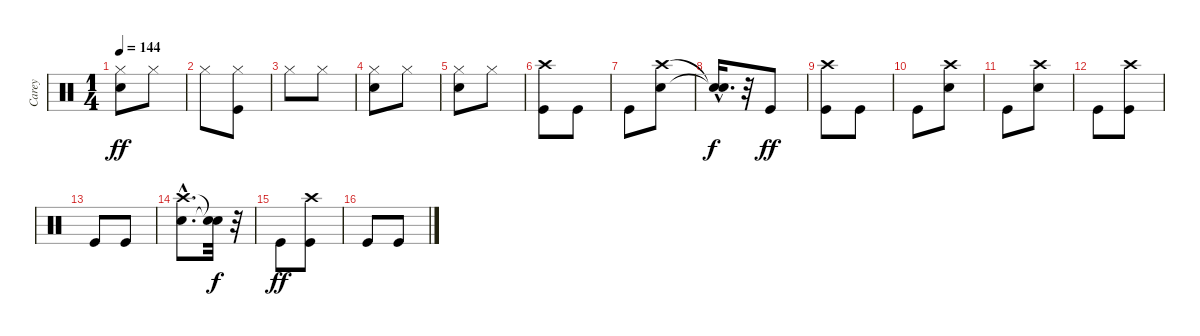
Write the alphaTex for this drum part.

\track ("Carey" "Carey") {instrument percussion}
\staff {score}
\articulation defaults
\ts (1 4)
\tempo 144
\clef neutral
\ks c
("Snare (hit) 2" "Hi-Hat (closed)").8{dy ff} "Hi-Hat (closed)".8 |
"Hi-Hat (closed)".8 ("Kick (hit)" "Hi-Hat (closed)").8 |
"Hi-Hat (closed)".8 "Hi-Hat (closed)".8 |
("Snare (hit) 2" "Hi-Hat (closed)").8 "Hi-Hat (closed)".8 |
("Snare (hit) 2" "Hi-Hat (closed)").8 "Hi-Hat (closed)".8 |
("Kick (hit)" "Crash high (hit)").8 "Kick (hit)".8 |
"Kick (hit)".8 ("Snare (hit) 2" "Crash high (hit)").8 |
("Snare (hit)"{hac t} "Snare (hit)"{hac t}).16{d dy f} r.32 "Kick (hit)".8{dy ff} |
("Kick (hit)" "Crash high (hit)").8 "Kick (hit)".8 |
"Kick (hit)".8 ("Snare (hit) 2" "Crash high (hit)").8 |
"Kick (hit)".8 ("Snare (hit) 2" "Crash high (hit)").8 |
"Kick (hit)".8 ("Kick (hit)" "Crash high (hit)").8 |
"Kick (hit)".8 "Kick (hit)".8 |
("Snare (hit) 2"{hac} "Crash high (hit)"{hac}).8{d} ("Snare (hit)"{t} "Snare (hit)"{t}).32{dy f} r.32 |
"Kick (hit)".8{dy ff} ("Kick (hit)" "Crash high (hit)").8 |
"Kick (hit)".8 "Kick (hit)".8
